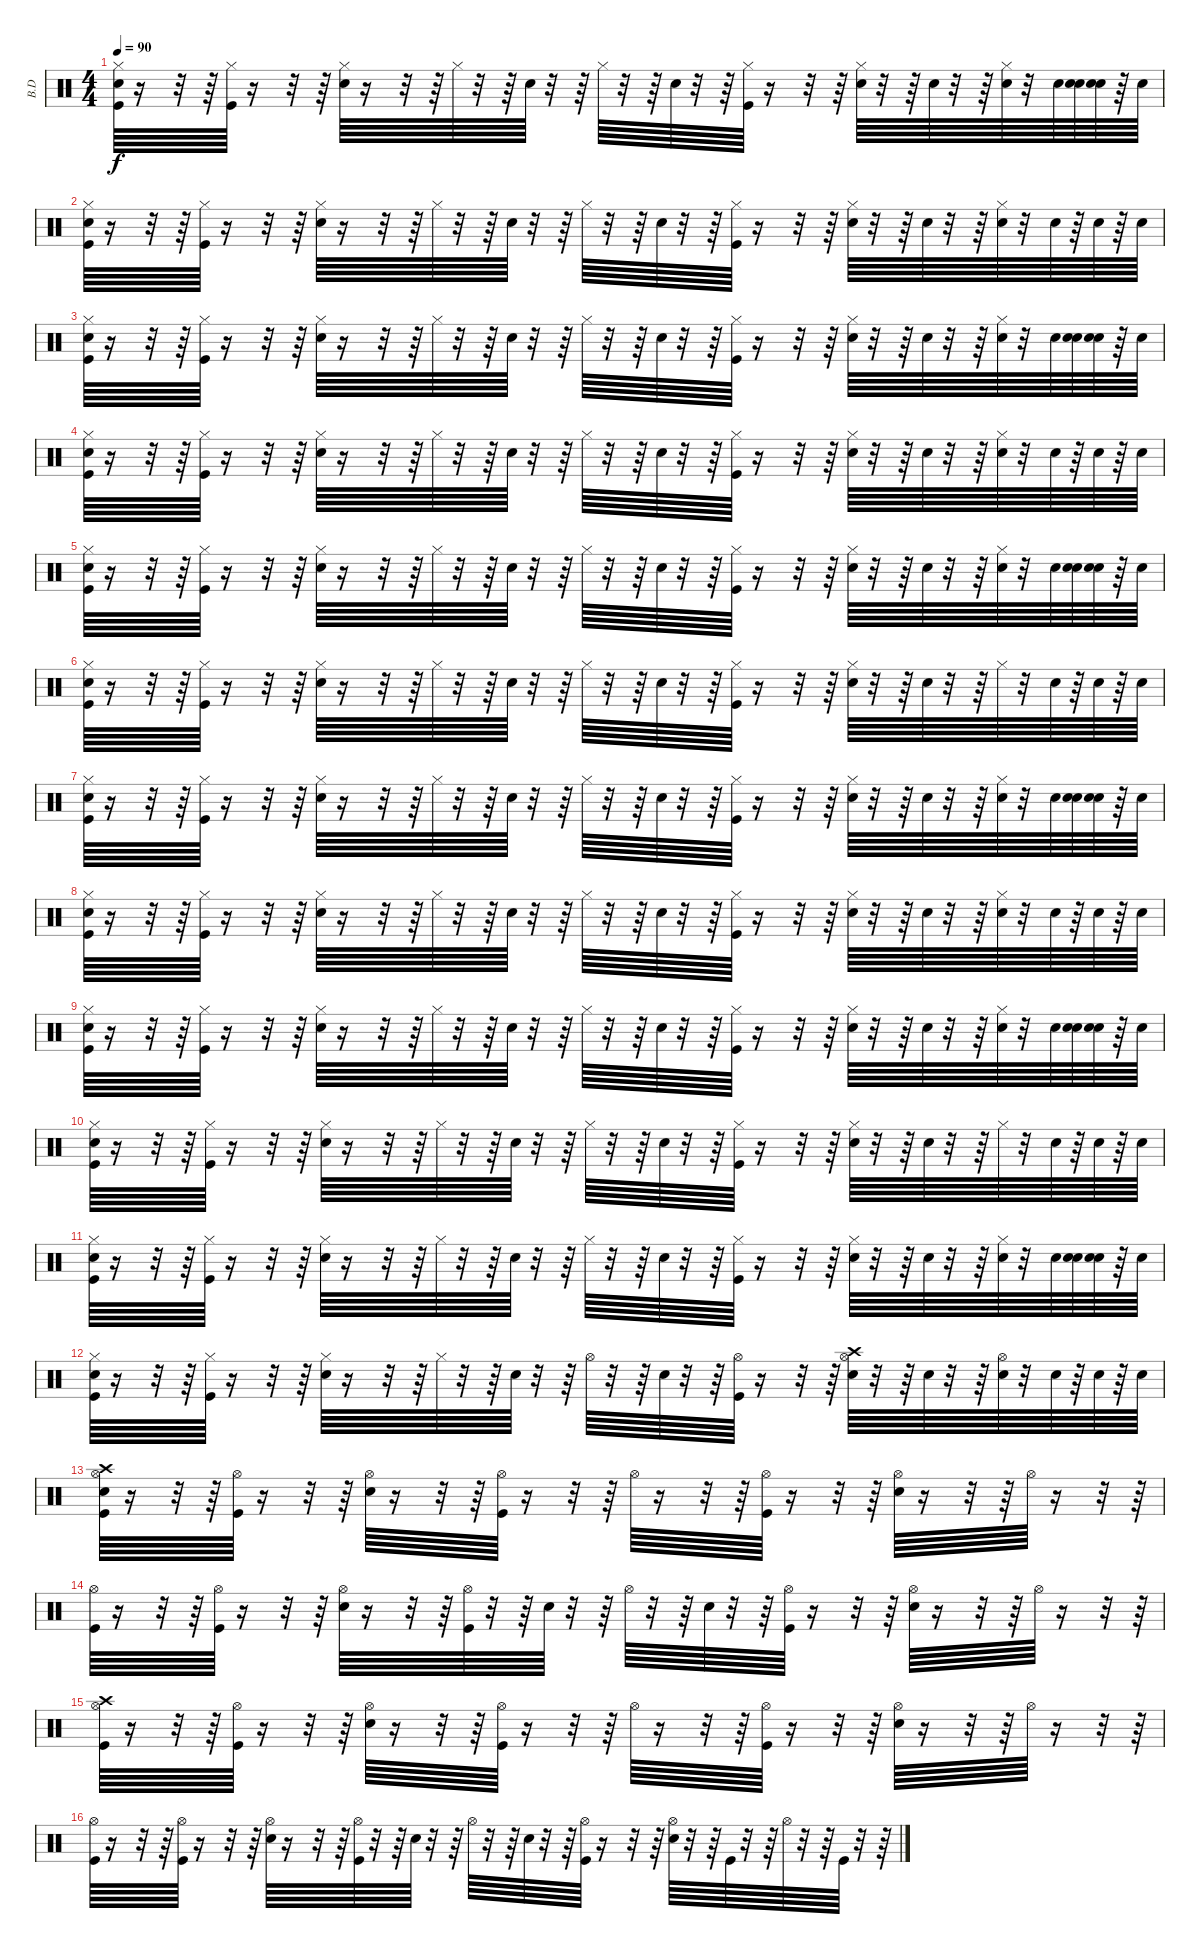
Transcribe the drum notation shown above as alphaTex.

\track ("B.D" "B.D") {instrument percussion}
\staff {score}
\articulation defaults
\ts (4 4)
\tempo 90
\clef neutral
\ks c
("Snare (hit)" "Kick (hit)" "Hi-Hat (closed)").64{dy f} r.16 r.32 r.64 ("Kick (hit)" "Hi-Hat (closed)").64 r.16 r.32 r.64 ("Electric Snare (hit)" "Hi-Hat (closed)").64 r.16 r.32 r.64 "Hi-Hat (closed)".64 r.32 r.64 "Electric Snare (hit)".64 r.32 r.64 "Hi-Hat (closed)".64 r.32 r.64 "Electric Snare (hit)".64 r.32 r.64 ("Kick (hit)" "Hi-Hat (closed)").64 r.16 r.32 r.64 ("Electric Snare (hit)" "Hi-Hat (closed)").64 r.32 r.64 "Electric Snare (hit)".64 r.32 r.64 ("Electric Snare (hit)" "Hi-Hat (closed)").64 r.32 "Electric Snare (hit)".64 ("Snare (hit)" "Electric Snare (hit)").64 ("Snare (hit)" "Electric Snare (hit)").64 r.64 "Electric Snare (hit)".64 |
("Snare (hit)" "Kick (hit)" "Hi-Hat (closed)").64 r.16 r.32 r.64 ("Kick (hit)" "Hi-Hat (closed)").64 r.16 r.32 r.64 ("Electric Snare (hit)" "Hi-Hat (closed)").64 r.16 r.32 r.64 "Hi-Hat (closed)".64 r.32 r.64 "Electric Snare (hit)".64 r.32 r.64 "Hi-Hat (closed)".64 r.32 r.64 "Electric Snare (hit)".64 r.32 r.64 ("Kick (hit)" "Hi-Hat (closed)").64 r.16 r.32 r.64 ("Electric Snare (hit)" "Hi-Hat (closed)").64 r.32 r.64 "Electric Snare (hit)".64 r.32 r.64 ("Electric Snare (hit)" "Hi-Hat (closed)").64 r.32 "Electric Snare (hit)".64 r.64 "Electric Snare (hit)".64 r.64 "Electric Snare (hit)".64 |
("Snare (hit)" "Kick (hit)" "Hi-Hat (closed)").64 r.16 r.32 r.64 ("Kick (hit)" "Hi-Hat (closed)").64 r.16 r.32 r.64 ("Electric Snare (hit)" "Hi-Hat (closed)").64 r.16 r.32 r.64 "Hi-Hat (closed)".64 r.32 r.64 "Electric Snare (hit)".64 r.32 r.64 "Hi-Hat (closed)".64 r.32 r.64 "Electric Snare (hit)".64 r.32 r.64 ("Kick (hit)" "Hi-Hat (closed)").64 r.16 r.32 r.64 ("Electric Snare (hit)" "Hi-Hat (closed)").64 r.32 r.64 "Electric Snare (hit)".64 r.32 r.64 ("Electric Snare (hit)" "Hi-Hat (closed)").64 r.32 "Electric Snare (hit)".64 ("Snare (hit)" "Electric Snare (hit)").64 ("Snare (hit)" "Electric Snare (hit)").64 r.64 "Electric Snare (hit)".64 |
("Snare (hit)" "Kick (hit)" "Hi-Hat (closed)").64 r.16 r.32 r.64 ("Kick (hit)" "Hi-Hat (closed)").64 r.16 r.32 r.64 ("Electric Snare (hit)" "Hi-Hat (closed)").64 r.16 r.32 r.64 "Hi-Hat (closed)".64 r.32 r.64 "Electric Snare (hit)".64 r.32 r.64 "Hi-Hat (closed)".64 r.32 r.64 "Electric Snare (hit)".64 r.32 r.64 ("Kick (hit)" "Hi-Hat (closed)").64 r.16 r.32 r.64 ("Electric Snare (hit)" "Hi-Hat (closed)").64 r.32 r.64 "Electric Snare (hit)".64 r.32 r.64 ("Electric Snare (hit)" "Hi-Hat (closed)").64 r.32 "Electric Snare (hit)".64 r.64 "Electric Snare (hit)".64 r.64 "Electric Snare (hit)".64 |
("Snare (hit)" "Kick (hit)" "Hi-Hat (closed)").64 r.16 r.32 r.64 ("Kick (hit)" "Hi-Hat (closed)").64 r.16 r.32 r.64 ("Electric Snare (hit)" "Hi-Hat (closed)").64 r.16 r.32 r.64 "Hi-Hat (closed)".64 r.32 r.64 "Electric Snare (hit)".64 r.32 r.64 "Hi-Hat (closed)".64 r.32 r.64 "Electric Snare (hit)".64 r.32 r.64 ("Kick (hit)" "Hi-Hat (closed)").64 r.16 r.32 r.64 ("Electric Snare (hit)" "Hi-Hat (closed)").64 r.32 r.64 "Electric Snare (hit)".64 r.32 r.64 ("Electric Snare (hit)" "Hi-Hat (closed)").64 r.32 "Electric Snare (hit)".64 ("Snare (hit)" "Electric Snare (hit)").64 ("Snare (hit)" "Electric Snare (hit)").64 r.64 "Electric Snare (hit)".64 |
("Snare (hit)" "Kick (hit)" "Hi-Hat (closed)").64 r.16 r.32 r.64 ("Kick (hit)" "Hi-Hat (closed)").64 r.16 r.32 r.64 ("Electric Snare (hit)" "Hi-Hat (closed)").64 r.16 r.32 r.64 "Hi-Hat (closed)".64 r.32 r.64 "Electric Snare (hit)".64 r.32 r.64 "Hi-Hat (closed)".64 r.32 r.64 "Electric Snare (hit)".64 r.32 r.64 ("Kick (hit)" "Hi-Hat (closed)").64 r.16 r.32 r.64 ("Electric Snare (hit)" "Hi-Hat (closed)").64 r.32 r.64 "Electric Snare (hit)".64 r.32 r.64 "Hi-Hat (closed)".64 r.32 "Electric Snare (hit)".64 r.64 "Electric Snare (hit)".64 r.64 "Electric Snare (hit)".64 |
("Snare (hit)" "Kick (hit)" "Hi-Hat (closed)").64 r.16 r.32 r.64 ("Kick (hit)" "Hi-Hat (closed)").64 r.16 r.32 r.64 ("Electric Snare (hit)" "Hi-Hat (closed)").64 r.16 r.32 r.64 "Hi-Hat (closed)".64 r.32 r.64 "Electric Snare (hit)".64 r.32 r.64 "Hi-Hat (closed)".64 r.32 r.64 "Electric Snare (hit)".64 r.32 r.64 ("Kick (hit)" "Hi-Hat (closed)").64 r.16 r.32 r.64 ("Electric Snare (hit)" "Hi-Hat (closed)").64 r.32 r.64 "Electric Snare (hit)".64 r.32 r.64 ("Electric Snare (hit)" "Hi-Hat (closed)").64 r.32 "Electric Snare (hit)".64 ("Snare (hit)" "Electric Snare (hit)").64 ("Snare (hit)" "Electric Snare (hit)").64 r.64 "Electric Snare (hit)".64 |
("Snare (hit)" "Kick (hit)" "Hi-Hat (closed)").64 r.16 r.32 r.64 ("Kick (hit)" "Hi-Hat (closed)").64 r.16 r.32 r.64 ("Electric Snare (hit)" "Hi-Hat (closed)").64 r.16 r.32 r.64 "Hi-Hat (closed)".64 r.32 r.64 "Electric Snare (hit)".64 r.32 r.64 "Hi-Hat (closed)".64 r.32 r.64 "Electric Snare (hit)".64 r.32 r.64 ("Kick (hit)" "Hi-Hat (closed)").64 r.16 r.32 r.64 ("Electric Snare (hit)" "Hi-Hat (closed)").64 r.32 r.64 "Electric Snare (hit)".64 r.32 r.64 ("Electric Snare (hit)" "Hi-Hat (closed)").64 r.32 "Electric Snare (hit)".64 r.64 "Electric Snare (hit)".64 r.64 "Electric Snare (hit)".64 |
("Snare (hit)" "Kick (hit)" "Hi-Hat (closed)").64 r.16 r.32 r.64 ("Kick (hit)" "Hi-Hat (closed)").64 r.16 r.32 r.64 ("Electric Snare (hit)" "Hi-Hat (closed)").64 r.16 r.32 r.64 "Hi-Hat (closed)".64 r.32 r.64 "Electric Snare (hit)".64 r.32 r.64 "Hi-Hat (closed)".64 r.32 r.64 "Electric Snare (hit)".64 r.32 r.64 ("Kick (hit)" "Hi-Hat (closed)").64 r.16 r.32 r.64 ("Electric Snare (hit)" "Hi-Hat (closed)").64 r.32 r.64 "Electric Snare (hit)".64 r.32 r.64 ("Electric Snare (hit)" "Hi-Hat (closed)").64 r.32 "Electric Snare (hit)".64 ("Snare (hit)" "Electric Snare (hit)").64 ("Snare (hit)" "Electric Snare (hit)").64 r.64 "Electric Snare (hit)".64 |
("Snare (hit)" "Kick (hit)" "Hi-Hat (closed)").64 r.16 r.32 r.64 ("Kick (hit)" "Hi-Hat (closed)").64 r.16 r.32 r.64 ("Electric Snare (hit)" "Hi-Hat (closed)").64 r.16 r.32 r.64 "Hi-Hat (closed)".64 r.32 r.64 "Electric Snare (hit)".64 r.32 r.64 "Hi-Hat (closed)".64 r.32 r.64 "Electric Snare (hit)".64 r.32 r.64 ("Kick (hit)" "Hi-Hat (closed)").64 r.16 r.32 r.64 ("Electric Snare (hit)" "Hi-Hat (closed)").64 r.32 r.64 "Electric Snare (hit)".64 r.32 r.64 "Hi-Hat (closed)".64 r.32 "Electric Snare (hit)".64 r.64 "Electric Snare (hit)".64 r.64 "Electric Snare (hit)".64 |
("Snare (hit)" "Kick (hit)" "Hi-Hat (closed)").64 r.16 r.32 r.64 ("Kick (hit)" "Hi-Hat (closed)").64 r.16 r.32 r.64 ("Electric Snare (hit)" "Hi-Hat (closed)").64 r.16 r.32 r.64 "Hi-Hat (closed)".64 r.32 r.64 "Electric Snare (hit)".64 r.32 r.64 "Hi-Hat (closed)".64 r.32 r.64 "Electric Snare (hit)".64 r.32 r.64 ("Kick (hit)" "Hi-Hat (closed)").64 r.16 r.32 r.64 ("Electric Snare (hit)" "Hi-Hat (closed)").64 r.32 r.64 "Electric Snare (hit)".64 r.32 r.64 ("Electric Snare (hit)" "Hi-Hat (closed)").64 r.32 "Electric Snare (hit)".64 ("Snare (hit)" "Electric Snare (hit)").64 ("Snare (hit)" "Electric Snare (hit)").64 r.64 "Electric Snare (hit)".64 |
("Snare (hit)" "Kick (hit)" "Hi-Hat (closed)").64 r.16 r.32 r.64 ("Kick (hit)" "Hi-Hat (closed)").64 r.16 r.32 r.64 ("Electric Snare (hit)" "Hi-Hat (closed)").64 r.16 r.32 r.64 "Hi-Hat (closed)".64 r.32 r.64 "Electric Snare (hit)".64 r.32 r.64 "Hi-Hat (open)".64 r.32 r.64 "Electric Snare (hit)".64 r.32 r.64 ("Kick (hit)" "Hi-Hat (open)").64 r.16 r.32 r.64 ("Electric Snare (hit)" "Hi-Hat (open)" "Crash high (hit)").64 r.32 r.64 "Electric Snare (hit)".64 r.32 r.64 ("Electric Snare (hit)" "Hi-Hat (open)").64 r.32 "Electric Snare (hit)".64 r.64 "Electric Snare (hit)".64 r.64 "Electric Snare (hit)".64 |
("Snare (hit)" "Kick (hit)" "Hi-Hat (open)" "Crash high (hit)").64 r.16 r.32 r.64 ("Kick (hit)" "Hi-Hat (open)").64 r.16 r.32 r.64 ("Electric Snare (hit)" "Hi-Hat (open)").64 r.16 r.32 r.64 ("Kick (hit)" "Hi-Hat (open)").64 r.16 r.32 r.64 "Hi-Hat (open)".64 r.16 r.32 r.64 ("Kick (hit)" "Hi-Hat (open)").64 r.16 r.32 r.64 ("Electric Snare (hit)" "Hi-Hat (open)").64 r.16 r.32 r.64 "Hi-Hat (open)".64 r.16 r.32 r.64 |
("Kick (hit)" "Hi-Hat (open)").64 r.16 r.32 r.64 ("Kick (hit)" "Hi-Hat (open)").64 r.16 r.32 r.64 ("Electric Snare (hit)" "Hi-Hat (open)").64 r.16 r.32 r.64 ("Kick (hit)" "Hi-Hat (open)").64 r.32 r.64 "Electric Snare (hit)".64 r.32 r.64 "Hi-Hat (open)".64 r.32 r.64 "Electric Snare (hit)".64 r.32 r.64 ("Kick (hit)" "Hi-Hat (open)").64 r.16 r.32 r.64 ("Electric Snare (hit)" "Hi-Hat (open)").64 r.16 r.32 r.64 "Hi-Hat (open)".64 r.16 r.32 r.64 |
("Kick (hit)" "Hi-Hat (open)" "Crash high (hit)").64 r.16 r.32 r.64 ("Kick (hit)" "Hi-Hat (open)").64 r.16 r.32 r.64 ("Electric Snare (hit)" "Hi-Hat (open)").64 r.16 r.32 r.64 ("Kick (hit)" "Hi-Hat (open)").64 r.16 r.32 r.64 "Hi-Hat (open)".64 r.16 r.32 r.64 ("Kick (hit)" "Hi-Hat (open)").64 r.16 r.32 r.64 ("Electric Snare (hit)" "Hi-Hat (open)").64 r.16 r.32 r.64 "Hi-Hat (open)".64 r.16 r.32 r.64 |
("Kick (hit)" "Hi-Hat (open)").64 r.16 r.32 r.64 ("Kick (hit)" "Hi-Hat (open)").64 r.16 r.32 r.64 ("Electric Snare (hit)" "Hi-Hat (open)").64 r.16 r.32 r.64 ("Kick (hit)" "Hi-Hat (open)").64 r.32 r.64 "Electric Snare (hit)".64 r.32 r.64 "Hi-Hat (open)".64 r.32 r.64 "Electric Snare (hit)".64 r.32 r.64 ("Kick (hit)" "Hi-Hat (open)").64 r.16 r.32 r.64 ("Electric Snare (hit)" "Hi-Hat (open)").64 r.32 r.64 "Kick (hit)".64 r.32 r.64 "Hi-Hat (open)".64 r.32 r.64 "Kick (hit)".64 r.32 r.64
